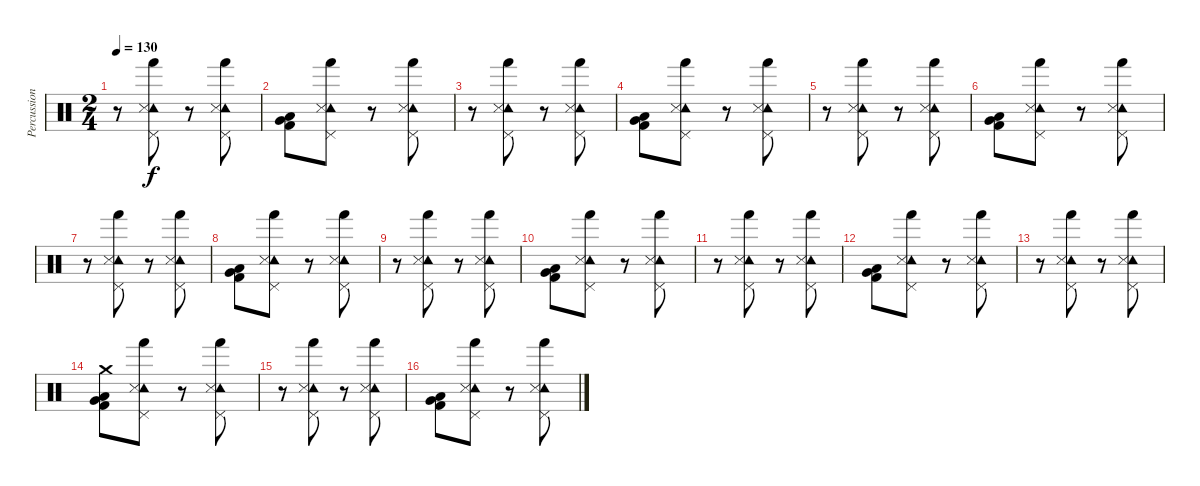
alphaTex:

\track ("Percussion" "Percussion") {instrument percussion}
\staff {score}
\articulation defaults
\ts (2 4)
\tempo 130
\clef neutral
\ks c
r.8{dy f} ("Tambourine (hit)" "Snare (side stick) 3" "Pedal Hi-Hat (hit)" "Hand (hit)").8 r.8 ("Tambourine (hit)" "Snare (side stick) 3" "Pedal Hi-Hat (hit)" "Hand (hit)").8 |
("Very Low Tom (hit)" "Low Tom (hit)" "Kick (hit) 2").8 ("Tambourine (hit)" "Snare (side stick) 3" "Pedal Hi-Hat (hit)" "Hand (hit)").8 r.8 ("Tambourine (hit)" "Snare (side stick) 3" "Pedal Hi-Hat (hit)" "Hand (hit)").8 |
r.8 ("Tambourine (hit)" "Snare (side stick) 3" "Pedal Hi-Hat (hit)" "Hand (hit)").8 r.8 ("Tambourine (hit)" "Snare (side stick) 3" "Pedal Hi-Hat (hit)" "Hand (hit)").8 |
("Very Low Tom (hit)" "Low Tom (hit)" "Kick (hit) 2").8 ("Tambourine (hit)" "Snare (side stick) 3" "Pedal Hi-Hat (hit)" "Hand (hit)").8 r.8 ("Tambourine (hit)" "Snare (side stick) 3" "Pedal Hi-Hat (hit)" "Hand (hit)").8 |
r.8 ("Tambourine (hit)" "Snare (side stick) 3" "Pedal Hi-Hat (hit)" "Hand (hit)").8 r.8 ("Tambourine (hit)" "Snare (side stick) 3" "Pedal Hi-Hat (hit)" "Hand (hit)").8 |
("Very Low Tom (hit)" "Low Tom (hit)" "Kick (hit) 2").8 ("Tambourine (hit)" "Snare (side stick) 3" "Pedal Hi-Hat (hit)" "Hand (hit)").8 r.8 ("Tambourine (hit)" "Snare (side stick) 3" "Pedal Hi-Hat (hit)" "Hand (hit)").8 |
r.8 ("Tambourine (hit)" "Snare (side stick) 3" "Pedal Hi-Hat (hit)" "Hand (hit)").8 r.8 ("Tambourine (hit)" "Snare (side stick) 3" "Pedal Hi-Hat (hit)" "Hand (hit)").8 |
("Very Low Tom (hit)" "Low Tom (hit)" "Kick (hit) 2").8 ("Tambourine (hit)" "Snare (side stick) 3" "Pedal Hi-Hat (hit)" "Hand (hit)").8 r.8 ("Tambourine (hit)" "Snare (side stick) 3" "Pedal Hi-Hat (hit)" "Hand (hit)").8 |
r.8 ("Tambourine (hit)" "Snare (side stick) 3" "Pedal Hi-Hat (hit)" "Hand (hit)").8 r.8 ("Tambourine (hit)" "Snare (side stick) 3" "Pedal Hi-Hat (hit)" "Hand (hit)").8 |
("Very Low Tom (hit)" "Low Tom (hit)" "Kick (hit) 2").8 ("Tambourine (hit)" "Snare (side stick) 3" "Pedal Hi-Hat (hit)" "Hand (hit)").8 r.8 ("Tambourine (hit)" "Snare (side stick) 3" "Pedal Hi-Hat (hit)" "Hand (hit)").8 |
r.8 ("Tambourine (hit)" "Snare (side stick) 3" "Pedal Hi-Hat (hit)" "Hand (hit)").8 r.8 ("Tambourine (hit)" "Snare (side stick) 3" "Pedal Hi-Hat (hit)" "Hand (hit)").8 |
("Very Low Tom (hit)" "Low Tom (hit)" "Kick (hit) 2").8 ("Tambourine (hit)" "Snare (side stick) 3" "Pedal Hi-Hat (hit)" "Hand (hit)").8 r.8 ("Tambourine (hit)" "Snare (side stick) 3" "Pedal Hi-Hat (hit)" "Hand (hit)").8 |
r.8 ("Tambourine (hit)" "Snare (side stick) 3" "Pedal Hi-Hat (hit)" "Hand (hit)").8 r.8 ("Tambourine (hit)" "Snare (side stick) 3" "Pedal Hi-Hat (hit)" "Hand (hit)").8 |
("Crash medium (hit)" "Very Low Tom (hit)" "Low Tom (hit)" "Kick (hit) 2").8 ("Tambourine (hit)" "Snare (side stick) 3" "Pedal Hi-Hat (hit)" "Hand (hit)").8 r.8 ("Tambourine (hit)" "Snare (side stick) 3" "Pedal Hi-Hat (hit)" "Hand (hit)").8 |
r.8 ("Tambourine (hit)" "Snare (side stick) 3" "Pedal Hi-Hat (hit)" "Hand (hit)").8 r.8 ("Tambourine (hit)" "Snare (side stick) 3" "Pedal Hi-Hat (hit)" "Hand (hit)").8 |
("Very Low Tom (hit)" "Low Tom (hit)" "Kick (hit) 2").8 ("Tambourine (hit)" "Snare (side stick) 3" "Pedal Hi-Hat (hit)" "Hand (hit)").8 r.8 ("Tambourine (hit)" "Snare (side stick) 3" "Pedal Hi-Hat (hit)" "Hand (hit)").8
